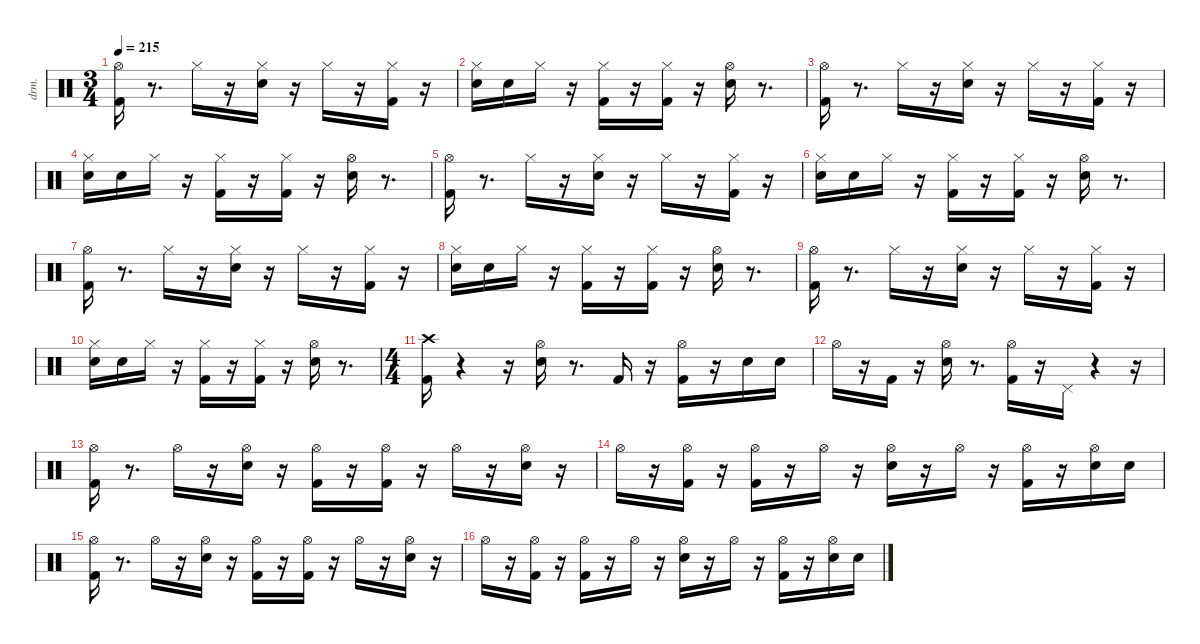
\defaultSystemsLayout 4
\hideDynamics
\bracketExtendMode nobrackets
\otherSystemsTrackNameOrientation horizontal
\track ("drums(暫定)" "drm.") {instrument percussion}
\staff {score}
\articulation defaults
\ts (3 4)
\tempo 215
\clef neutral
\ks aminor
("Kick (hit) 2" "Hi-Hat (open)"{acc #}).16{dy fff beam Down} r.8{d beam Down} "Hi-Hat (closed)"{acc #}.16{dy f beam Down} r.16{beam Down} ("Snare (hit) 2" "Hi-Hat (closed)"{acc #}).16{dy ff beam Down} r.16{beam Down} "Hi-Hat (closed)"{acc #}.16{beam Down} r.16{beam Down} ("Kick (hit) 2" "Hi-Hat (closed)"{acc #}).16{beam Down} r.16{beam Down} |
("Snare (hit) 2" "Hi-Hat (closed)"{acc #}).16{dy p beam Down} "Snare (hit) 2".16{dy ppp beam Down} "Hi-Hat (closed)"{acc #}.16{beam Down} r.16{beam Down} ("Kick (hit) 2" "Hi-Hat (closed)"{acc #}).16{dy p beam Down} r.16{beam Down} ("Kick (hit) 2" "Hi-Hat (closed)"{acc #}).16{dy f beam Down} r.16{beam Down} ("Snare (hit) 2" "Hi-Hat (open)"{acc #}).16{dy ff beam Down} r.8{d beam Down} |
("Kick (hit) 2" "Hi-Hat (open)"{acc #}).16{dy fff beam Down} r.8{d beam Down} "Hi-Hat (closed)"{acc #}.16{dy f beam Down} r.16{beam Down} ("Snare (hit) 2" "Hi-Hat (closed)"{acc #}).16{dy ff beam Down} r.16{beam Down} "Hi-Hat (closed)"{acc #}.16{beam Down} r.16{beam Down} ("Kick (hit) 2" "Hi-Hat (closed)"{acc #}).16{beam Down} r.16{beam Down} |
("Snare (hit) 2" "Hi-Hat (closed)"{acc #}).16{dy p beam Down} "Snare (hit) 2".16{dy ppp beam Down} "Hi-Hat (closed)"{acc #}.16{beam Down} r.16{beam Down} ("Kick (hit) 2" "Hi-Hat (closed)"{acc #}).16{dy p beam Down} r.16{beam Down} ("Kick (hit) 2" "Hi-Hat (closed)"{acc #}).16{dy f beam Down} r.16{beam Down} ("Snare (hit) 2" "Hi-Hat (open)"{acc #}).16{dy ff beam Down} r.8{d beam Down} |
("Kick (hit) 2" "Hi-Hat (open)"{acc #}).16{dy fff beam Down} r.8{d beam Down} "Hi-Hat (closed)"{acc #}.16{dy f beam Down} r.16{beam Down} ("Snare (hit) 2" "Hi-Hat (closed)"{acc #}).16{dy ff beam Down} r.16{beam Down} "Hi-Hat (closed)"{acc #}.16{beam Down} r.16{beam Down} ("Kick (hit) 2" "Hi-Hat (closed)"{acc #}).16{beam Down} r.16{beam Down} |
("Snare (hit) 2" "Hi-Hat (closed)"{acc #}).16{dy p beam Down} "Snare (hit) 2".16{dy ppp beam Down} "Hi-Hat (closed)"{acc #}.16{beam Down} r.16{beam Down} ("Kick (hit) 2" "Hi-Hat (closed)"{acc #}).16{dy p beam Down} r.16{beam Down} ("Kick (hit) 2" "Hi-Hat (closed)"{acc #}).16{dy f beam Down} r.16{beam Down} ("Snare (hit) 2" "Hi-Hat (open)"{acc #}).16{dy ff beam Down} r.8{d beam Down} |
("Kick (hit) 2" "Hi-Hat (open)"{acc #}).16{dy fff beam Down} r.8{d beam Down} "Hi-Hat (closed)"{acc #}.16{dy f beam Down} r.16{beam Down} ("Snare (hit) 2" "Hi-Hat (closed)"{acc #}).16{dy ff beam Down} r.16{beam Down} "Hi-Hat (closed)"{acc #}.16{beam Down} r.16{beam Down} ("Kick (hit) 2" "Hi-Hat (closed)"{acc #}).16{beam Down} r.16{beam Down} |
("Snare (hit) 2" "Hi-Hat (closed)"{acc #}).16{dy p beam Down} "Snare (hit) 2".16{dy ppp beam Down} "Hi-Hat (closed)"{acc #}.16{beam Down} r.16{beam Down} ("Kick (hit) 2" "Hi-Hat (closed)"{acc #}).16{dy p beam Down} r.16{beam Down} ("Kick (hit) 2" "Hi-Hat (closed)"{acc #}).16{dy f beam Down} r.16{beam Down} ("Snare (hit) 2" "Hi-Hat (open)"{acc #}).16{dy ff beam Down} r.8{d beam Down} |
("Kick (hit) 2" "Hi-Hat (open)"{acc #}).16{dy fff beam Down} r.8{d beam Down} "Hi-Hat (closed)"{acc #}.16{dy f beam Down} r.16{beam Down} ("Snare (hit) 2" "Hi-Hat (closed)"{acc #}).16{dy ff beam Down} r.16{beam Down} "Hi-Hat (closed)"{acc #}.16{beam Down} r.16{beam Down} ("Kick (hit) 2" "Hi-Hat (closed)"{acc #}).16{beam Down} r.16{beam Down} |
("Snare (hit) 2" "Hi-Hat (closed)"{acc #}).16{dy p beam Down} "Snare (hit) 2".16{dy ppp beam Down} "Hi-Hat (closed)"{acc #}.16{beam Down} r.16{beam Down} ("Kick (hit) 2" "Hi-Hat (closed)"{acc #}).16{dy p beam Down} r.16{beam Down} ("Kick (hit) 2" "Hi-Hat (closed)"{acc #}).16{dy f beam Down} r.16{beam Down} ("Snare (hit) 2" "Hi-Hat (open)"{acc #}).16{dy ff beam Down} r.8{d beam Down} |
\ts (4 4)
("Kick (hit) 2" "Crash high (hit)"{acc #}).16{dy fff beam Down} r.4{beam Down} r.16{beam Down} ("Snare (hit) 2" "Hi-Hat (open)"{acc #}).16{dy ff beam Down} r.8{d beam Down} "Kick (hit) 2".16{dy f beam Up} r.16{beam Up} ("Kick (hit) 2" "Hi-Hat (open)"{acc #}).16{dy ff beam Down} r.16{beam Down} "Snare (hit) 2".16{dy p beam Down} "Snare (hit) 2".16{dy ppp beam Down} |
"Hi-Hat (open)"{acc #}.16{dy fff beam Down} r.16{beam Down} "Kick (hit) 2".16{dy ff beam Up} r.16{beam Up} ("Snare (hit) 2" "Hi-Hat (open)"{acc #}).16{beam Down} r.8{d beam Down} ("Kick (hit) 2" "Hi-Hat (open)"{acc #}).16{dy fff beam Down} r.16{beam Down} "Pedal Hi-Hat (hit)"{acc #}.16{dy ff beam Up} r.4{beam Up} r.16{beam Up} |
("Kick (hit) 2" "Hi-Hat (open)"{acc #}).16{beam Down} r.8{d beam Down} "Hi-Hat (open)"{acc #}.16{dy mp beam Down} r.16{beam Down} ("Snare (hit) 2" "Hi-Hat (open)"{acc #}).16{dy ff beam Down} r.16{beam Down} ("Kick (hit) 2" "Hi-Hat (open)"{acc #}).16{dy f beam Down} r.16{beam Down} ("Kick (hit) 2" "Hi-Hat (open)"{acc #}).16{dy ff beam Down} r.16{beam Down} "Hi-Hat (open)"{acc #}.16{dy mf beam Down} r.16{beam Down} ("Snare (hit) 2" "Hi-Hat (open)"{acc #}).16{dy ff beam Down} r.16{beam Down} |
"Hi-Hat (open)"{acc #}.16{dy p beam Down} r.16{beam Down} ("Kick (hit) 2" "Hi-Hat (open)"{acc #}).16{dy ff beam Down} r.16{beam Down} ("Kick (hit) 2" "Hi-Hat (open)"{acc #}).16{beam Down} r.16{beam Down} "Hi-Hat (open)"{acc #}.16{dy ppp beam Down} r.16{beam Down} ("Snare (hit) 2" "Hi-Hat (open)"{acc #}).16{dy ff beam Down} r.16{beam Down} "Hi-Hat (open)"{acc #}.16{dy ppp beam Down} r.16{beam Down} ("Kick (hit) 2" "Hi-Hat (open)"{acc #}).16{dy f beam Down} r.16{beam Down} ("Snare (hit) 2" "Hi-Hat (open)"{acc #}).16{beam Down} "Snare (hit) 2".16{dy pp beam Down} |
("Kick (hit) 2" "Hi-Hat (open)"{acc #}).16{dy ff beam Down} r.8{d beam Down} "Hi-Hat (open)"{acc #}.16{dy mp beam Down} r.16{beam Down} ("Snare (hit) 2" "Hi-Hat (open)"{acc #}).16{dy ff beam Down} r.16{beam Down} ("Kick (hit) 2" "Hi-Hat (open)"{acc #}).16{dy f beam Down} r.16{beam Down} ("Kick (hit) 2" "Hi-Hat (open)"{acc #}).16{dy ff beam Down} r.16{beam Down} "Hi-Hat (open)"{acc #}.16{dy mf beam Down} r.16{beam Down} ("Snare (hit) 2" "Hi-Hat (open)"{acc #}).16{dy ff beam Down} r.16{beam Down} |
"Hi-Hat (open)"{acc #}.16{dy p beam Down} r.16{beam Down} ("Kick (hit) 2" "Hi-Hat (open)"{acc #}).16{dy ff beam Down} r.16{beam Down} ("Kick (hit) 2" "Hi-Hat (open)"{acc #}).16{beam Down} r.16{beam Down} "Hi-Hat (open)"{acc #}.16{dy ppp beam Down} r.16{beam Down} ("Snare (hit) 2" "Hi-Hat (open)"{acc #}).16{dy ff beam Down} r.16{beam Down} "Hi-Hat (open)"{acc #}.16{dy ppp beam Down} r.16{beam Down} ("Kick (hit) 2" "Hi-Hat (open)"{acc #}).16{dy f beam Down} r.16{beam Down} ("Snare (hit) 2" "Hi-Hat (open)"{acc #}).16{beam Down} "Snare (hit) 2".16{dy pp beam Down}
